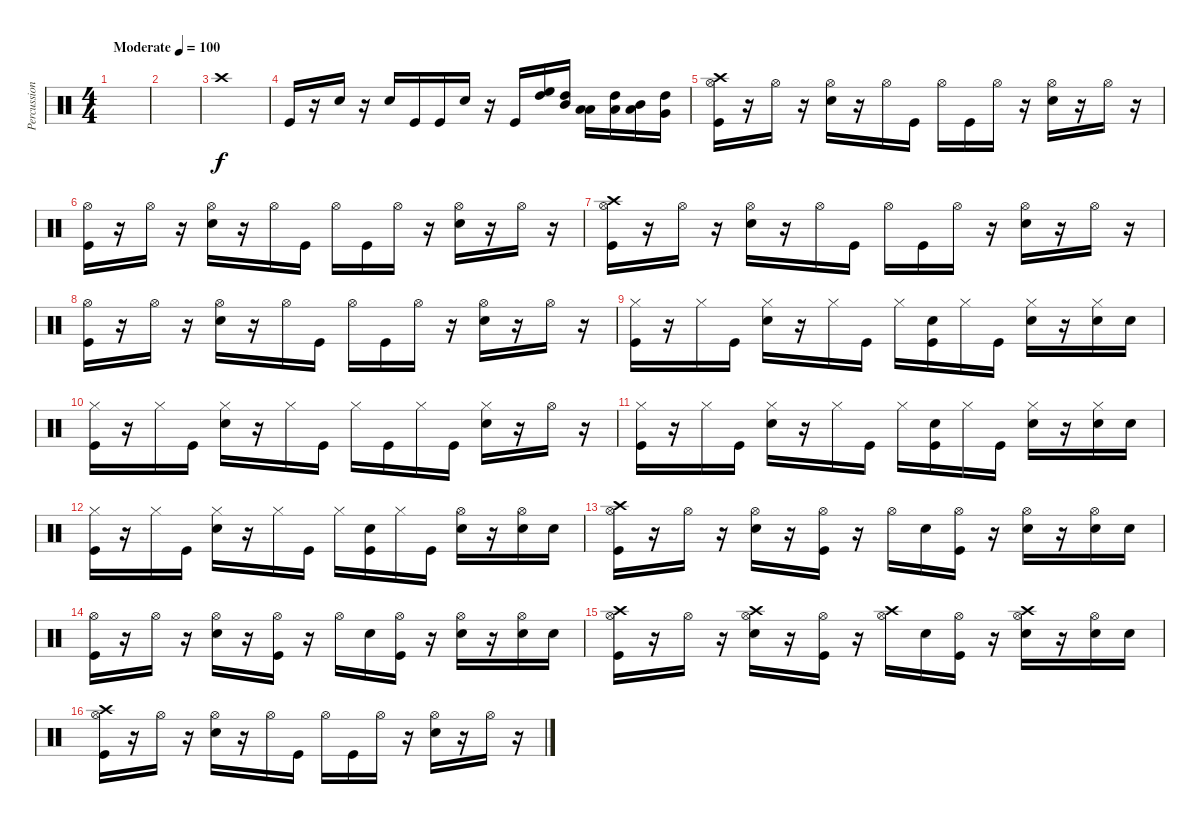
\track ("Percussion" "Percussion") {instrument percussion}
\staff {score}
\articulation defaults
\ts (4 4)
\tempo (100 "Moderate")
\clef neutral
\ks c
|
|
"Crash high (hit)".1 |
"Kick (hit)".16 r.16 "Snare (hit) 2".16 r.16 "Snare (hit) 2".16 "Kick (hit)".16 "Kick (hit)".16 "Snare (hit) 2".16 r.16 "Kick (hit)".16 ("High Floor Tom (hit)" "High Tom (hit)").16 ("Mid Tom (hit)" "High Tom (hit)").16 ("Low Tom (hit)" "Low Tom (hit)").16 ("Low Tom (hit)" "High Tom (hit)").16 ("Mid Tom (hit)" "Low Tom (hit)").16 ("High Tom (hit)" "Very Low Tom (hit)").16 |
("Crash high (hit)" "Hi-Hat (open)" "Kick (hit)").16 r.16 "Hi-Hat (open)".16 r.16 ("Hi-Hat (open)" "Snare (hit) 2").16 r.16 "Hi-Hat (open)".16 "Kick (hit)".16 "Hi-Hat (open)".16 "Kick (hit)".16 "Hi-Hat (open)".16 r.16 ("Hi-Hat (open)" "Snare (hit) 2").16 r.16 "Hi-Hat (open)".16 r.16 |
("Hi-Hat (open)" "Kick (hit)").16 r.16 "Hi-Hat (open)".16 r.16 ("Hi-Hat (open)" "Snare (hit) 2").16 r.16 "Hi-Hat (open)".16 "Kick (hit)".16 "Hi-Hat (open)".16 "Kick (hit)".16 "Hi-Hat (open)".16 r.16 ("Hi-Hat (open)" "Snare (hit) 2").16 r.16 "Hi-Hat (open)".16 r.16 |
("Crash high (hit)" "Hi-Hat (open)" "Kick (hit)").16 r.16 "Hi-Hat (open)".16 r.16 ("Hi-Hat (open)" "Snare (hit) 2").16 r.16 "Hi-Hat (open)".16 "Kick (hit)".16 "Hi-Hat (open)".16 "Kick (hit)".16 "Hi-Hat (open)".16 r.16 ("Hi-Hat (open)" "Snare (hit) 2").16 r.16 "Hi-Hat (open)".16 r.16 |
("Hi-Hat (open)" "Kick (hit)").16 r.16 "Hi-Hat (open)".16 r.16 ("Hi-Hat (open)" "Snare (hit) 2").16 r.16 "Hi-Hat (open)".16 "Kick (hit)".16 "Hi-Hat (open)".16 "Kick (hit)".16 "Hi-Hat (open)".16 r.16 ("Hi-Hat (open)" "Snare (hit) 2").16 r.16 "Hi-Hat (open)".16 r.16 |
("Hi-Hat (closed)" "Kick (hit)").16 r.16 "Hi-Hat (closed)".16 "Kick (hit)".16 ("Hi-Hat (closed)" "Snare (hit) 2").16 r.16 "Hi-Hat (closed)".16 "Kick (hit)".16 "Hi-Hat (closed)".16 ("Snare (hit) 2" "Kick (hit)").16 "Hi-Hat (closed)".16 "Kick (hit)".16 ("Hi-Hat (closed)" "Snare (hit) 2").16 r.16 ("Hi-Hat (closed)" "Snare (hit) 2").16 "Snare (hit) 2".16 |
("Hi-Hat (closed)" "Kick (hit)").16 r.16 "Hi-Hat (closed)".16 "Kick (hit)".16 ("Hi-Hat (closed)" "Snare (hit) 2").16 r.16 "Hi-Hat (closed)".16 "Kick (hit)".16 "Hi-Hat (closed)".16 "Kick (hit)".16 "Hi-Hat (closed)".16 "Kick (hit)".16 ("Hi-Hat (closed)" "Snare (hit) 2").16 r.16 "Hi-Hat (open)".16 r.16 |
("Hi-Hat (closed)" "Kick (hit)").16 r.16 "Hi-Hat (closed)".16 "Kick (hit)".16 ("Hi-Hat (closed)" "Snare (hit) 2").16 r.16 "Hi-Hat (closed)".16 "Kick (hit)".16 "Hi-Hat (closed)".16 ("Snare (hit) 2" "Kick (hit)").16 "Hi-Hat (closed)".16 "Kick (hit)".16 ("Hi-Hat (closed)" "Snare (hit) 2").16 r.16 ("Hi-Hat (closed)" "Snare (hit) 2").16 "Snare (hit) 2".16 |
("Hi-Hat (closed)" "Kick (hit)").16 r.16 "Hi-Hat (closed)".16 "Kick (hit)".16 ("Hi-Hat (closed)" "Snare (hit) 2").16 r.16 "Hi-Hat (closed)".16 "Kick (hit)".16 "Hi-Hat (closed)".16 ("Snare (hit) 2" "Kick (hit)").16 "Hi-Hat (closed)".16 "Kick (hit)".16 ("Hi-Hat (open)" "Snare (hit) 2").16 r.16 ("Hi-Hat (open)" "Snare (hit) 2").16 "Snare (hit) 2".16 |
("Crash high (hit)" "Hi-Hat (open)" "Kick (hit)").16 r.16 "Hi-Hat (open)".16 r.16 ("Hi-Hat (open)" "Snare (hit) 2").16 r.16 ("Hi-Hat (open)" "Kick (hit)").16 r.16 "Hi-Hat (open)".16 "Snare (hit) 2".16 ("Hi-Hat (open)" "Kick (hit)").16 r.16 ("Hi-Hat (open)" "Snare (hit) 2").16 r.16 ("Hi-Hat (open)" "Snare (hit) 2").16 "Snare (hit) 2".16 |
("Hi-Hat (open)" "Kick (hit)").16 r.16 "Hi-Hat (open)".16 r.16 ("Hi-Hat (open)" "Snare (hit) 2").16 r.16 ("Hi-Hat (open)" "Kick (hit)").16 r.16 "Hi-Hat (open)".16 "Snare (hit) 2".16 ("Hi-Hat (open)" "Kick (hit)").16 r.16 ("Hi-Hat (open)" "Snare (hit) 2").16 r.16 ("Hi-Hat (open)" "Snare (hit) 2").16 "Snare (hit) 2".16 |
("Crash high (hit)" "Hi-Hat (open)" "Kick (hit)").16 r.16 "Hi-Hat (open)".16 r.16 ("Crash high (hit)" "Hi-Hat (open)" "Snare (hit) 2").16 r.16 ("Hi-Hat (open)" "Kick (hit)").16 r.16 ("Crash high (hit)" "Hi-Hat (open)").16 "Snare (hit) 2".16 ("Hi-Hat (open)" "Kick (hit)").16 r.16 ("Crash high (hit)" "Hi-Hat (open)" "Snare (hit) 2").16 r.16 ("Hi-Hat (open)" "Snare (hit) 2").16 "Snare (hit) 2".16 |
("Crash high (hit)" "Hi-Hat (open)" "Kick (hit)").16 r.16 "Hi-Hat (open)".16 r.16 ("Hi-Hat (open)" "Snare (hit) 2").16 r.16 "Hi-Hat (open)".16 "Kick (hit)".16 "Hi-Hat (open)".16 "Kick (hit)".16 "Hi-Hat (open)".16 r.16 ("Hi-Hat (open)" "Snare (hit) 2").16 r.16 "Hi-Hat (open)".16 r.16
